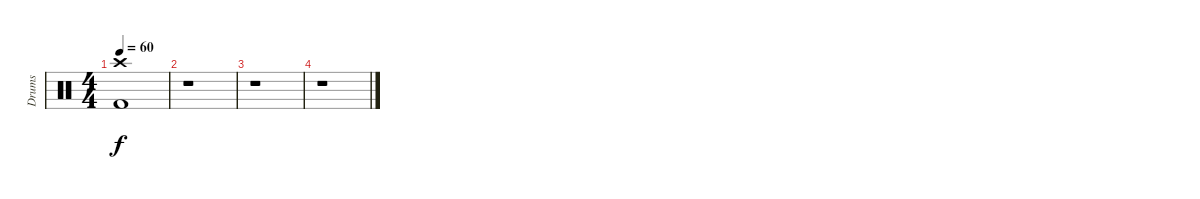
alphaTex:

\track ("Drums" "Drums") {instrument percussion}
\staff {score}
\articulation defaults
\ts (4 4)
\tempo 60
\clef neutral
\ks c
("Kick (hit) 2" "Crash high (hit)").1{dy f} |
r.1 |
r.1 |
r.1
